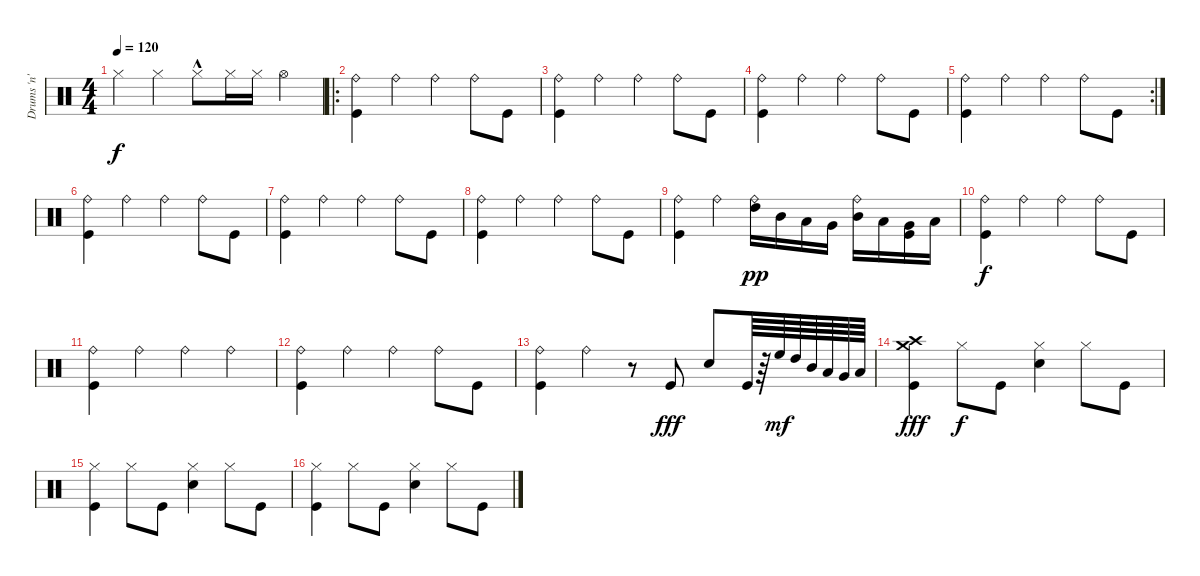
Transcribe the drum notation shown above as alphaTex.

\track ("Drums 'n' Such" "Drums 'n' ") {instrument percussion}
\staff {score}
\articulation defaults
\ts (4 4)
\tempo 120
\clef neutral
\ks c "Hi-Hat (closed)".4{dy f} "Hi-Hat (closed)".4 "Hi-Hat (closed)"{hac}.8 "Hi-Hat (closed)".16 "Hi-Hat (closed)".16 "Hi-Hat (open)".4
|
\ro
("Ride (bell)" "Kick (hit)").4 "Ride (bell)".4 "Ride (bell)".4 "Ride (bell)".8 "Kick (hit)".8 |
("Ride (bell)" "Kick (hit)").4 "Ride (bell)".4 "Ride (bell)".4 "Ride (bell)".8 "Kick (hit)".8 |
("Ride (bell)" "Kick (hit)").4 "Ride (bell)".4 "Ride (bell)".4 "Ride (bell)".8 "Kick (hit)".8 |
\rc 2
("Ride (bell)" "Kick (hit)").4 "Ride (bell)".4 "Ride (bell)".4 "Ride (bell)".8 "Kick (hit)".8 |
("Ride (bell)" "Kick (hit)").4 "Ride (bell)".4 "Ride (bell)".4 "Ride (bell)".8 "Kick (hit)".8 |
("Ride (bell)" "Kick (hit)").4 "Ride (bell)".4 "Ride (bell)".4 "Ride (bell)".8 "Kick (hit)".8 |
("Ride (bell)" "Kick (hit)").4 "Ride (bell)".4 "Ride (bell)".4 "Ride (bell)".8 "Kick (hit)".8 |
("Ride (bell)" "Kick (hit)").4 "Ride (bell)".4 ("Ride (bell)" "High Tom (hit)").16{dy pp} "Mid Tom (hit)".16 "Low Tom (hit)".16 "Very Low Tom (hit)".16 ("Ride (bell)" "Mid Tom (hit)").16 "Low Tom (hit)".16 ("Kick (hit)" "Very Low Tom (hit)").16 "Low Floor Tom (hit)".16 |
("Ride (bell)" "Kick (hit)").4{dy f} "Ride (bell)".4 "Ride (bell)".4 "Ride (bell)".8 "Kick (hit)".8 |
("Ride (bell)" "Kick (hit)").4 "Ride (bell)".4 "Ride (bell)".4 "Ride (bell)".4 |
("Ride (bell)" "Kick (hit)").4 "Ride (bell)".4 "Ride (bell)".4 "Ride (bell)".8 "Kick (hit)".8 |
("Ride (bell)" "Kick (hit)").4 "Ride (bell)".4 r.8 "Kick (hit)".8{dy fff} "Snare (hit) 2".8 "Kick (hit)".64 r.64 "High Floor Tom (hit)".64{dy mf} "High Tom (hit)".64 "Mid Tom (hit)".64 "Low Tom (hit)".64 "Very Low Tom (hit)".64 "Low Floor Tom (hit)".64 |
("Crash high (hit)" "Crash medium (hit)" "Kick (hit)").4{dy fff} "Hi-Hat (closed)".8{dy f} "Kick (hit)".8 ("Hi-Hat (closed)" "Snare (hit) 2").4 "Hi-Hat (closed)".8 "Kick (hit)".8 |
("Hi-Hat (closed)" "Kick (hit)").4 "Hi-Hat (closed)".8 "Kick (hit)".8 ("Hi-Hat (closed)" "Snare (hit) 2").4 "Hi-Hat (closed)".8 "Kick (hit)".8 |
("Hi-Hat (closed)" "Kick (hit)").4 "Hi-Hat (closed)".8 "Kick (hit)".8 ("Hi-Hat (closed)" "Snare (hit) 2").4 "Hi-Hat (closed)".8 "Kick (hit)".8
